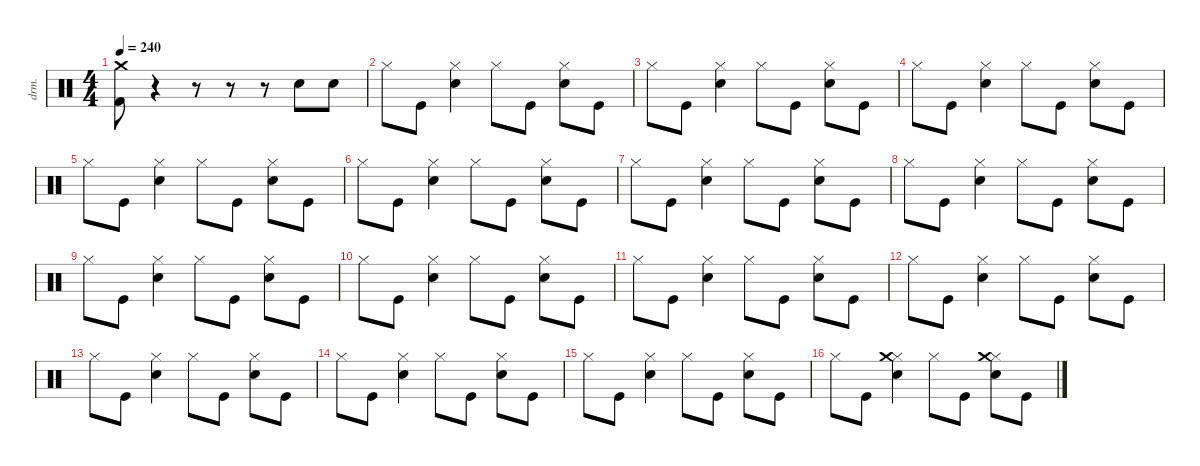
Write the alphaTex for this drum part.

\defaultSystemsLayout 4
\hideDynamics
\bracketExtendMode nobrackets
\track ("dany" "drm.") {instrument percussion}
\staff {score}
\articulation defaults
\ts (4 4)
\tempo 240
\clef neutral
\ks c
("Kick (hit) 2" "Crash medium (hit)").8{dy f beam Down} r.4{beam Down} r.8{beam Down} r.8{beam Down} r.8{beam Down} "Snare (hit) 2".8{beam Down} "Snare (hit) 2".8{beam Down} |
"Hi-Hat (closed)".8{beam Down} "Kick (hit)".8{beam Down} ("Snare (hit) 2" "Hi-Hat (closed)").4{beam Down} "Hi-Hat (closed)".8{beam Down} "Kick (hit)".8{beam Down} ("Snare (hit) 2" "Hi-Hat (closed)").8{beam Down} "Kick (hit)".8{beam Down} |
"Hi-Hat (closed)".8{beam Down} "Kick (hit)".8{beam Down} ("Snare (hit) 2" "Hi-Hat (closed)").4{beam Down} "Hi-Hat (closed)".8{beam Down} "Kick (hit)".8{beam Down} ("Snare (hit) 2" "Hi-Hat (closed)").8{beam Down} "Kick (hit)".8{beam Down} |
"Hi-Hat (closed)".8{beam Down} "Kick (hit)".8{beam Down} ("Snare (hit) 2" "Hi-Hat (closed)").4{beam Down} "Hi-Hat (closed)".8{beam Down} "Kick (hit)".8{beam Down} ("Snare (hit) 2" "Hi-Hat (closed)").8{beam Down} "Kick (hit)".8{beam Down} |
"Hi-Hat (closed)".8{beam Down} "Kick (hit)".8{beam Down} ("Snare (hit) 2" "Hi-Hat (closed)").4{beam Down} "Hi-Hat (closed)".8{beam Down} "Kick (hit)".8{beam Down} ("Snare (hit) 2" "Hi-Hat (closed)").8{beam Down} "Kick (hit)".8{beam Down} |
"Hi-Hat (closed)".8{beam Down} "Kick (hit)".8{beam Down} ("Snare (hit) 2" "Hi-Hat (closed)").4{beam Down} "Hi-Hat (closed)".8{beam Down} "Kick (hit)".8{beam Down} ("Snare (hit) 2" "Hi-Hat (closed)").8{beam Down} "Kick (hit)".8{beam Down} |
"Hi-Hat (closed)".8{beam Down} "Kick (hit)".8{beam Down} ("Snare (hit) 2" "Hi-Hat (closed)").4{beam Down} "Hi-Hat (closed)".8{beam Down} "Kick (hit)".8{beam Down} ("Snare (hit) 2" "Hi-Hat (closed)").8{beam Down} "Kick (hit)".8{beam Down} |
"Hi-Hat (closed)".8{beam Down} "Kick (hit)".8{beam Down} ("Snare (hit) 2" "Hi-Hat (closed)").4{beam Down} "Hi-Hat (closed)".8{beam Down} "Kick (hit)".8{beam Down} ("Snare (hit) 2" "Hi-Hat (closed)").8{beam Down} "Kick (hit)".8{beam Down} |
"Hi-Hat (closed)".8{beam Down} "Kick (hit)".8{beam Down} ("Snare (hit) 2" "Hi-Hat (closed)").4{beam Down} "Hi-Hat (closed)".8{beam Down} "Kick (hit)".8{beam Down} ("Snare (hit) 2" "Hi-Hat (closed)").8{beam Down} "Kick (hit)".8{beam Down} |
"Hi-Hat (closed)".8{beam Down} "Kick (hit)".8{beam Down} ("Snare (hit) 2" "Hi-Hat (closed)").4{beam Down} "Hi-Hat (closed)".8{beam Down} "Kick (hit)".8{beam Down} ("Snare (hit) 2" "Hi-Hat (closed)").8{beam Down} "Kick (hit)".8{beam Down} |
"Hi-Hat (closed)".8{beam Down} "Kick (hit)".8{beam Down} ("Snare (hit) 2" "Hi-Hat (closed)").4{beam Down} "Hi-Hat (closed)".8{beam Down} "Kick (hit)".8{beam Down} ("Snare (hit) 2" "Hi-Hat (closed)").8{beam Down} "Kick (hit)".8{beam Down} |
"Hi-Hat (closed)".8{beam Down} "Kick (hit)".8{beam Down} ("Snare (hit) 2" "Hi-Hat (closed)").4{beam Down} "Hi-Hat (closed)".8{beam Down} "Kick (hit)".8{beam Down} ("Snare (hit) 2" "Hi-Hat (closed)").8{beam Down} "Kick (hit)".8{beam Down} |
"Hi-Hat (closed)".8{beam Down} "Kick (hit)".8{beam Down} ("Snare (hit) 2" "Hi-Hat (closed)").4{beam Down} "Hi-Hat (closed)".8{beam Down} "Kick (hit)".8{beam Down} ("Snare (hit) 2" "Hi-Hat (closed)").8{beam Down} "Kick (hit)".8{beam Down} |
"Hi-Hat (closed)".8{beam Down} "Kick (hit)".8{beam Down} ("Snare (hit) 2" "Hi-Hat (closed)").4{beam Down} "Hi-Hat (closed)".8{beam Down} "Kick (hit)".8{beam Down} ("Snare (hit) 2" "Hi-Hat (closed)").8{beam Down} "Kick (hit)".8{beam Down} |
"Hi-Hat (closed)".8{beam Down} "Kick (hit)".8{beam Down} ("Snare (hit) 2" "Hi-Hat (closed)").4{beam Down} "Hi-Hat (closed)".8{beam Down} "Kick (hit)".8{beam Down} ("Snare (hit) 2" "Hi-Hat (closed)").8{beam Down} "Kick (hit)".8{beam Down} |
"Hi-Hat (closed)".8{beam Down} "Kick (hit)".8{beam Down} ("Snare (hit) 2" "Hi-Hat (closed)" "Crash medium (hit)").4{beam Down} "Hi-Hat (closed)".8{beam Down} "Kick (hit)".8{beam Down} ("Snare (hit) 2" "Hi-Hat (closed)" "Crash medium (hit)").8{beam Down} "Kick (hit)".8{beam Down}
